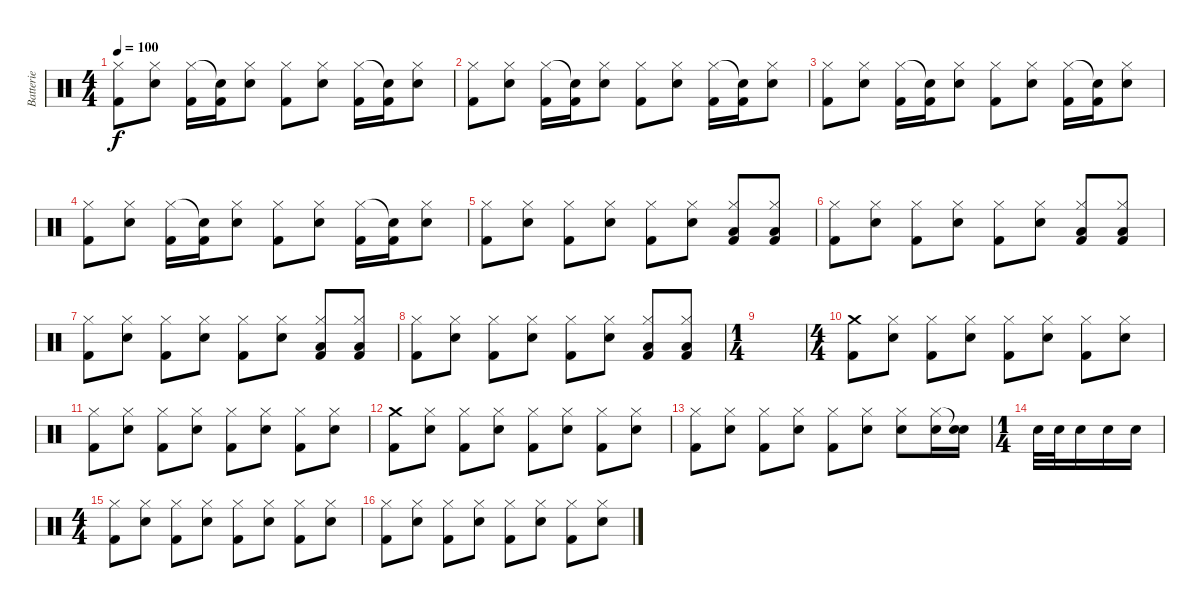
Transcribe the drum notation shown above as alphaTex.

\track ("Batterie" "Batterie") {instrument percussion}
\staff {score}
\articulation defaults
\ts (4 4)
\tempo 100
\clef neutral
\ks c
("Kick (hit) 2" "Hi-Hat (closed)").8{dy f} ("Electric Snare (hit)" "Hi-Hat (closed)").8 ("Kick (hit) 2" "Hi-Hat (closed)").16 ("Kick (hit) 2" "Snare (hit)"{t}).16 ("Electric Snare (hit)" "Hi-Hat (closed)").8 ("Kick (hit) 2" "Hi-Hat (closed)").8 ("Electric Snare (hit)" "Hi-Hat (closed)").8 ("Kick (hit) 2" "Hi-Hat (closed)").16 ("Kick (hit) 2" "Snare (hit)"{t}).16 ("Electric Snare (hit)" "Hi-Hat (closed)").8 |
("Kick (hit) 2" "Hi-Hat (closed)").8 ("Electric Snare (hit)" "Hi-Hat (closed)").8 ("Kick (hit) 2" "Hi-Hat (closed)").16 ("Kick (hit) 2" "Snare (hit)"{t}).16 ("Electric Snare (hit)" "Hi-Hat (closed)").8 ("Kick (hit) 2" "Hi-Hat (closed)").8 ("Electric Snare (hit)" "Hi-Hat (closed)").8 ("Kick (hit) 2" "Hi-Hat (closed)").16 ("Kick (hit) 2" "Snare (hit)"{t}).16 ("Electric Snare (hit)" "Hi-Hat (closed)").8 |
("Kick (hit) 2" "Hi-Hat (closed)").8 ("Electric Snare (hit)" "Hi-Hat (closed)").8 ("Kick (hit) 2" "Hi-Hat (closed)").16 ("Kick (hit) 2" "Snare (hit)"{t}).16 ("Electric Snare (hit)" "Hi-Hat (closed)").8 ("Kick (hit) 2" "Hi-Hat (closed)").8 ("Electric Snare (hit)" "Hi-Hat (closed)").8 ("Kick (hit) 2" "Hi-Hat (closed)").16 ("Kick (hit) 2" "Snare (hit)"{t}).16 ("Electric Snare (hit)" "Hi-Hat (closed)").8 |
("Kick (hit) 2" "Hi-Hat (closed)").8 ("Electric Snare (hit)" "Hi-Hat (closed)").8 ("Kick (hit) 2" "Hi-Hat (closed)").16 ("Kick (hit) 2" "Snare (hit)"{t}).16 ("Electric Snare (hit)" "Hi-Hat (closed)").8 ("Kick (hit) 2" "Hi-Hat (closed)").8 ("Electric Snare (hit)" "Hi-Hat (closed)").8 ("Kick (hit) 2" "Hi-Hat (closed)").16 ("Kick (hit) 2" "Snare (hit)"{t}).16 ("Electric Snare (hit)" "Hi-Hat (closed)").8 |
("Kick (hit) 2" "Hi-Hat (closed)").8 ("Electric Snare (hit)" "Hi-Hat (closed)").8 ("Kick (hit) 2" "Hi-Hat (closed)").8 ("Electric Snare (hit)" "Hi-Hat (closed)").8 ("Kick (hit) 2" "Hi-Hat (closed)").8 ("Electric Snare (hit)" "Hi-Hat (closed)").8 ("Low Tom (hit)" "Kick (hit) 2" "Hi-Hat (closed)").8 ("Low Tom (hit)" "Kick (hit) 2" "Hi-Hat (closed)").8 |
("Kick (hit) 2" "Hi-Hat (closed)").8 ("Electric Snare (hit)" "Hi-Hat (closed)").8 ("Kick (hit) 2" "Hi-Hat (closed)").8 ("Electric Snare (hit)" "Hi-Hat (closed)").8 ("Kick (hit) 2" "Hi-Hat (closed)").8 ("Electric Snare (hit)" "Hi-Hat (closed)").8 ("Low Tom (hit)" "Kick (hit) 2" "Hi-Hat (closed)").8 ("Low Tom (hit)" "Kick (hit) 2" "Hi-Hat (closed)").8 |
("Kick (hit) 2" "Hi-Hat (closed)").8 ("Electric Snare (hit)" "Hi-Hat (closed)").8 ("Kick (hit) 2" "Hi-Hat (closed)").8 ("Electric Snare (hit)" "Hi-Hat (closed)").8 ("Kick (hit) 2" "Hi-Hat (closed)").8 ("Electric Snare (hit)" "Hi-Hat (closed)").8 ("Low Tom (hit)" "Kick (hit) 2" "Hi-Hat (closed)").8 ("Low Tom (hit)" "Kick (hit) 2" "Hi-Hat (closed)").8 |
("Kick (hit) 2" "Hi-Hat (closed)").8 ("Electric Snare (hit)" "Hi-Hat (closed)").8 ("Kick (hit) 2" "Hi-Hat (closed)").8 ("Electric Snare (hit)" "Hi-Hat (closed)").8 ("Kick (hit) 2" "Hi-Hat (closed)").8 ("Electric Snare (hit)" "Hi-Hat (closed)").8 ("Low Tom (hit)" "Kick (hit) 2" "Hi-Hat (closed)").8 ("Low Tom (hit)" "Kick (hit) 2" "Hi-Hat (closed)").8 |
\ts (1 4)
|
\ts (4 4)
("Kick (hit) 2" "Crash medium (hit)").8 ("Electric Snare (hit)" "Hi-Hat (closed)").8 ("Kick (hit) 2" "Hi-Hat (closed)").8 ("Electric Snare (hit)" "Hi-Hat (closed)").8 ("Kick (hit) 2" "Hi-Hat (closed)").8 ("Electric Snare (hit)" "Hi-Hat (closed)").8 ("Kick (hit) 2" "Hi-Hat (closed)").8 ("Electric Snare (hit)" "Hi-Hat (closed)").8 |
("Kick (hit) 2" "Hi-Hat (closed)").8 ("Electric Snare (hit)" "Hi-Hat (closed)").8 ("Kick (hit) 2" "Hi-Hat (closed)").8 ("Electric Snare (hit)" "Hi-Hat (closed)").8 ("Kick (hit) 2" "Hi-Hat (closed)").8 ("Electric Snare (hit)" "Hi-Hat (closed)").8 ("Kick (hit) 2" "Hi-Hat (closed)").8 ("Electric Snare (hit)" "Hi-Hat (closed)").8 |
("Kick (hit) 2" "Crash medium (hit)").8 ("Electric Snare (hit)" "Hi-Hat (closed)").8 ("Kick (hit) 2" "Hi-Hat (closed)").8 ("Electric Snare (hit)" "Hi-Hat (closed)").8 ("Kick (hit) 2" "Hi-Hat (closed)").8 ("Electric Snare (hit)" "Hi-Hat (closed)").8 ("Kick (hit) 2" "Hi-Hat (closed)").8 ("Electric Snare (hit)" "Hi-Hat (closed)").8 |
("Kick (hit) 2" "Hi-Hat (closed)").8 ("Electric Snare (hit)" "Hi-Hat (closed)").8 ("Kick (hit) 2" "Hi-Hat (closed)").8 ("Electric Snare (hit)" "Hi-Hat (closed)").8 ("Kick (hit) 2" "Hi-Hat (closed)").8 ("Electric Snare (hit)" "Hi-Hat (closed)").8 ("Electric Snare (hit)" "Hi-Hat (closed)").8 ("Electric Snare (hit)" "Hi-Hat (closed)").16 ("Electric Snare (hit)" "Snare (hit)"{t}).16 |
\ts (1 4)
"Electric Snare (hit)".32 "Electric Snare (hit)".32 "Electric Snare (hit)".16 "Electric Snare (hit)".16 "Electric Snare (hit)".16 |
\ts (4 4)
("Kick (hit) 2" "Hi-Hat (closed)").8 ("Electric Snare (hit)" "Hi-Hat (closed)").8 ("Kick (hit) 2" "Hi-Hat (closed)").8 ("Electric Snare (hit)" "Hi-Hat (closed)").8 ("Kick (hit) 2" "Hi-Hat (closed)").8 ("Electric Snare (hit)" "Hi-Hat (closed)").8 ("Kick (hit) 2" "Hi-Hat (closed)").8 ("Electric Snare (hit)" "Hi-Hat (closed)").8 |
("Kick (hit) 2" "Hi-Hat (closed)").8 ("Electric Snare (hit)" "Hi-Hat (closed)").8 ("Kick (hit) 2" "Hi-Hat (closed)").8 ("Electric Snare (hit)" "Hi-Hat (closed)").8 ("Kick (hit) 2" "Hi-Hat (closed)").8 ("Electric Snare (hit)" "Hi-Hat (closed)").8 ("Kick (hit) 2" "Hi-Hat (closed)").8 ("Electric Snare (hit)" "Hi-Hat (closed)").8
